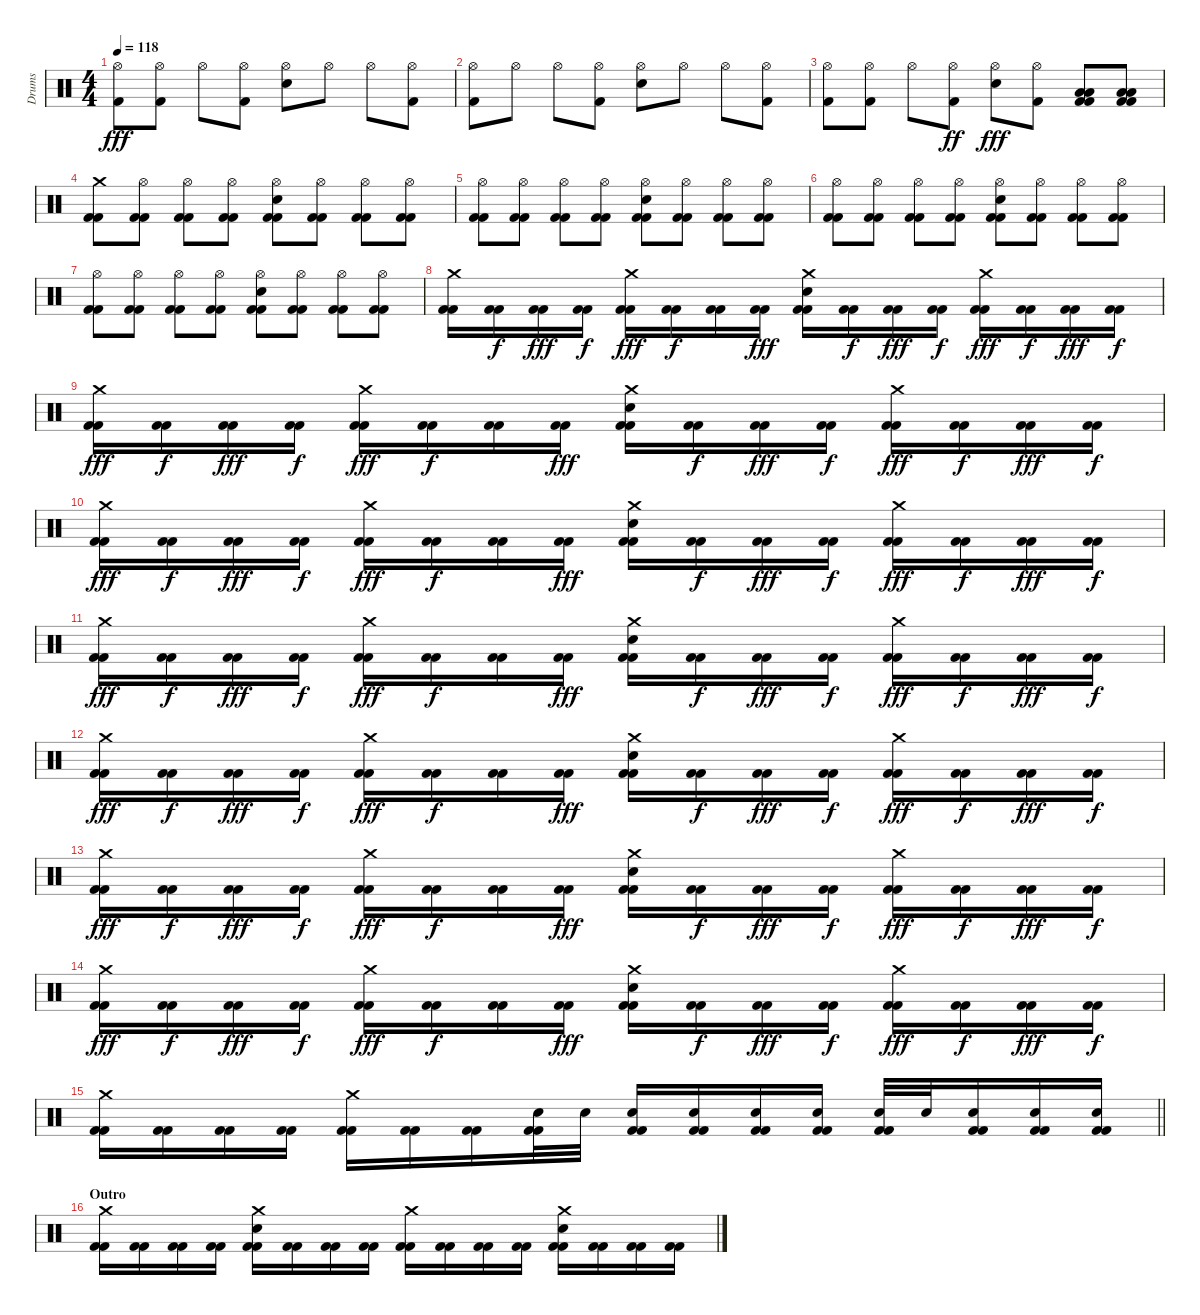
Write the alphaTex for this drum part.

\track ("Drums" "Drums") {instrument percussion}
\staff {score}
\articulation defaults
\ts (4 4)
\tempo 118
\clef neutral
\ks c
("Hi-Hat (open)" "Kick (hit) 2").8{dy fff} ("Hi-Hat (open)" "Kick (hit) 2").8 "Hi-Hat (open)".8 ("Hi-Hat (open)" "Kick (hit) 2").8 ("Hi-Hat (open)" "Electric Snare (hit)").8 "Hi-Hat (open)".8 "Hi-Hat (open)".8 ("Hi-Hat (open)" "Kick (hit) 2").8 |
("Hi-Hat (open)" "Kick (hit) 2").8 "Hi-Hat (open)".8 "Hi-Hat (open)".8 ("Hi-Hat (open)" "Kick (hit) 2").8 ("Hi-Hat (open)" "Electric Snare (hit)").8 "Hi-Hat (open)".8 "Hi-Hat (open)".8 ("Hi-Hat (open)" "Kick (hit) 2").8 |
("Hi-Hat (open)" "Kick (hit) 2").8 ("Hi-Hat (open)" "Kick (hit) 2").8 "Hi-Hat (open)".8 ("Hi-Hat (open)" "Kick (hit) 2").8{dy ff} ("Hi-Hat (open)" "Electric Snare (hit)").8{dy fff} ("Hi-Hat (open)" "Kick (hit) 2").8 ("Low Floor Tom (hit)" "Low Tom (hit)" "Kick (hit) 2" "Kick (hit) 2").8 ("Low Floor Tom (hit)" "Low Tom (hit)" "Kick (hit) 2" "Kick (hit) 2").8 |
("Crash medium (hit)" "Kick (hit) 2" "Kick (hit) 2").8 ("Hi-Hat (open)" "Kick (hit) 2" "Kick (hit) 2").8 ("Hi-Hat (open)" "Kick (hit) 2" "Kick (hit) 2").8 ("Hi-Hat (open)" "Kick (hit) 2" "Kick (hit) 2").8 ("Hi-Hat (open)" "Electric Snare (hit)" "Kick (hit) 2" "Kick (hit) 2").8 ("Hi-Hat (open)" "Kick (hit) 2" "Kick (hit) 2").8 ("Hi-Hat (open)" "Kick (hit) 2" "Kick (hit) 2").8 ("Hi-Hat (open)" "Kick (hit) 2" "Kick (hit) 2").8 |
("Hi-Hat (open)" "Kick (hit) 2" "Kick (hit) 2").8 ("Hi-Hat (open)" "Kick (hit) 2" "Kick (hit) 2").8 ("Hi-Hat (open)" "Kick (hit) 2" "Kick (hit) 2").8 ("Hi-Hat (open)" "Kick (hit) 2" "Kick (hit) 2").8 ("Hi-Hat (open)" "Electric Snare (hit)" "Kick (hit) 2" "Kick (hit) 2").8 ("Hi-Hat (open)" "Kick (hit) 2" "Kick (hit) 2").8 ("Hi-Hat (open)" "Kick (hit) 2" "Kick (hit) 2").8 ("Hi-Hat (open)" "Kick (hit) 2" "Kick (hit) 2").8 |
("Hi-Hat (open)" "Kick (hit) 2" "Kick (hit) 2").8 ("Hi-Hat (open)" "Kick (hit) 2" "Kick (hit) 2").8 ("Hi-Hat (open)" "Kick (hit) 2" "Kick (hit) 2").8 ("Hi-Hat (open)" "Kick (hit) 2" "Kick (hit) 2").8 ("Hi-Hat (open)" "Electric Snare (hit)" "Kick (hit) 2" "Kick (hit) 2").8 ("Hi-Hat (open)" "Kick (hit) 2" "Kick (hit) 2").8 ("Hi-Hat (open)" "Kick (hit) 2" "Kick (hit) 2").8 ("Hi-Hat (open)" "Kick (hit) 2" "Kick (hit) 2").8 |
("Hi-Hat (open)" "Kick (hit) 2" "Kick (hit) 2").8 ("Hi-Hat (open)" "Kick (hit) 2" "Kick (hit) 2").8 ("Hi-Hat (open)" "Kick (hit) 2" "Kick (hit) 2").8 ("Hi-Hat (open)" "Kick (hit) 2" "Kick (hit) 2").8 ("Hi-Hat (open)" "Electric Snare (hit)" "Kick (hit) 2" "Kick (hit) 2").8 ("Hi-Hat (open)" "Kick (hit) 2" "Kick (hit) 2").8 ("Hi-Hat (open)" "Kick (hit) 2" "Kick (hit) 2").8 ("Hi-Hat (open)" "Kick (hit) 2" "Kick (hit) 2").8 |
("Crash medium (hit)" "Kick (hit) 2" "Kick (hit) 2").16 ("Kick (hit) 2" "Kick (hit) 2").16{dy f} ("Kick (hit) 2" "Kick (hit) 2").16{dy fff} ("Kick (hit) 2" "Kick (hit) 2").16{dy f} ("Crash medium (hit)" "Kick (hit) 2" "Kick (hit) 2").16{dy fff} ("Kick (hit) 2" "Kick (hit) 2").16{dy f} ("Kick (hit) 2" "Kick (hit) 2").16 ("Kick (hit) 2" "Kick (hit) 2").16{dy fff} ("Crash medium (hit)" "Electric Snare (hit)" "Kick (hit) 2" "Kick (hit) 2").16 ("Kick (hit) 2" "Kick (hit) 2").16{dy f} ("Kick (hit) 2" "Kick (hit) 2").16{dy fff} ("Kick (hit) 2" "Kick (hit) 2").16{dy f} ("Crash medium (hit)" "Kick (hit) 2" "Kick (hit) 2").16{dy fff} ("Kick (hit) 2" "Kick (hit) 2").16{dy f} ("Kick (hit) 2" "Kick (hit) 2").16{dy fff} ("Kick (hit) 2" "Kick (hit) 2").16{dy f} |
("Crash medium (hit)" "Kick (hit) 2" "Kick (hit) 2").16{dy fff} ("Kick (hit) 2" "Kick (hit) 2").16{dy f} ("Kick (hit) 2" "Kick (hit) 2").16{dy fff} ("Kick (hit) 2" "Kick (hit) 2").16{dy f} ("Crash medium (hit)" "Kick (hit) 2" "Kick (hit) 2").16{dy fff} ("Kick (hit) 2" "Kick (hit) 2").16{dy f} ("Kick (hit) 2" "Kick (hit) 2").16 ("Kick (hit) 2" "Kick (hit) 2").16{dy fff} ("Crash medium (hit)" "Electric Snare (hit)" "Kick (hit) 2" "Kick (hit) 2").16 ("Kick (hit) 2" "Kick (hit) 2").16{dy f} ("Kick (hit) 2" "Kick (hit) 2").16{dy fff} ("Kick (hit) 2" "Kick (hit) 2").16{dy f} ("Crash medium (hit)" "Kick (hit) 2" "Kick (hit) 2").16{dy fff} ("Kick (hit) 2" "Kick (hit) 2").16{dy f} ("Kick (hit) 2" "Kick (hit) 2").16{dy fff} ("Kick (hit) 2" "Kick (hit) 2").16{dy f} |
("Crash medium (hit)" "Kick (hit) 2" "Kick (hit) 2").16{dy fff} ("Kick (hit) 2" "Kick (hit) 2").16{dy f} ("Kick (hit) 2" "Kick (hit) 2").16{dy fff} ("Kick (hit) 2" "Kick (hit) 2").16{dy f} ("Crash medium (hit)" "Kick (hit) 2" "Kick (hit) 2").16{dy fff} ("Kick (hit) 2" "Kick (hit) 2").16{dy f} ("Kick (hit) 2" "Kick (hit) 2").16 ("Kick (hit) 2" "Kick (hit) 2").16{dy fff} ("Crash medium (hit)" "Electric Snare (hit)" "Kick (hit) 2" "Kick (hit) 2").16 ("Kick (hit) 2" "Kick (hit) 2").16{dy f} ("Kick (hit) 2" "Kick (hit) 2").16{dy fff} ("Kick (hit) 2" "Kick (hit) 2").16{dy f} ("Crash medium (hit)" "Kick (hit) 2" "Kick (hit) 2").16{dy fff} ("Kick (hit) 2" "Kick (hit) 2").16{dy f} ("Kick (hit) 2" "Kick (hit) 2").16{dy fff} ("Kick (hit) 2" "Kick (hit) 2").16{dy f} |
("Crash medium (hit)" "Kick (hit) 2" "Kick (hit) 2").16{dy fff} ("Kick (hit) 2" "Kick (hit) 2").16{dy f} ("Kick (hit) 2" "Kick (hit) 2").16{dy fff} ("Kick (hit) 2" "Kick (hit) 2").16{dy f} ("Crash medium (hit)" "Kick (hit) 2" "Kick (hit) 2").16{dy fff} ("Kick (hit) 2" "Kick (hit) 2").16{dy f} ("Kick (hit) 2" "Kick (hit) 2").16 ("Kick (hit) 2" "Kick (hit) 2").16{dy fff} ("Crash medium (hit)" "Electric Snare (hit)" "Kick (hit) 2" "Kick (hit) 2").16 ("Kick (hit) 2" "Kick (hit) 2").16{dy f} ("Kick (hit) 2" "Kick (hit) 2").16{dy fff} ("Kick (hit) 2" "Kick (hit) 2").16{dy f} ("Crash medium (hit)" "Kick (hit) 2" "Kick (hit) 2").16{dy fff} ("Kick (hit) 2" "Kick (hit) 2").16{dy f} ("Kick (hit) 2" "Kick (hit) 2").16{dy fff} ("Kick (hit) 2" "Kick (hit) 2").16{dy f} |
("Crash medium (hit)" "Kick (hit) 2" "Kick (hit) 2").16{dy fff} ("Kick (hit) 2" "Kick (hit) 2").16{dy f} ("Kick (hit) 2" "Kick (hit) 2").16{dy fff} ("Kick (hit) 2" "Kick (hit) 2").16{dy f} ("Crash medium (hit)" "Kick (hit) 2" "Kick (hit) 2").16{dy fff} ("Kick (hit) 2" "Kick (hit) 2").16{dy f} ("Kick (hit) 2" "Kick (hit) 2").16 ("Kick (hit) 2" "Kick (hit) 2").16{dy fff} ("Crash medium (hit)" "Electric Snare (hit)" "Kick (hit) 2" "Kick (hit) 2").16 ("Kick (hit) 2" "Kick (hit) 2").16{dy f} ("Kick (hit) 2" "Kick (hit) 2").16{dy fff} ("Kick (hit) 2" "Kick (hit) 2").16{dy f} ("Crash medium (hit)" "Kick (hit) 2" "Kick (hit) 2").16{dy fff} ("Kick (hit) 2" "Kick (hit) 2").16{dy f} ("Kick (hit) 2" "Kick (hit) 2").16{dy fff} ("Kick (hit) 2" "Kick (hit) 2").16{dy f} |
("Crash medium (hit)" "Kick (hit) 2" "Kick (hit) 2").16{dy fff} ("Kick (hit) 2" "Kick (hit) 2").16{dy f} ("Kick (hit) 2" "Kick (hit) 2").16{dy fff} ("Kick (hit) 2" "Kick (hit) 2").16{dy f} ("Crash medium (hit)" "Kick (hit) 2" "Kick (hit) 2").16{dy fff} ("Kick (hit) 2" "Kick (hit) 2").16{dy f} ("Kick (hit) 2" "Kick (hit) 2").16 ("Kick (hit) 2" "Kick (hit) 2").16{dy fff} ("Crash medium (hit)" "Electric Snare (hit)" "Kick (hit) 2" "Kick (hit) 2").16 ("Kick (hit) 2" "Kick (hit) 2").16{dy f} ("Kick (hit) 2" "Kick (hit) 2").16{dy fff} ("Kick (hit) 2" "Kick (hit) 2").16{dy f} ("Crash medium (hit)" "Kick (hit) 2" "Kick (hit) 2").16{dy fff} ("Kick (hit) 2" "Kick (hit) 2").16{dy f} ("Kick (hit) 2" "Kick (hit) 2").16{dy fff} ("Kick (hit) 2" "Kick (hit) 2").16{dy f} |
("Crash medium (hit)" "Kick (hit) 2" "Kick (hit) 2").16{dy fff} ("Kick (hit) 2" "Kick (hit) 2").16{dy f} ("Kick (hit) 2" "Kick (hit) 2").16{dy fff} ("Kick (hit) 2" "Kick (hit) 2").16{dy f} ("Crash medium (hit)" "Kick (hit) 2" "Kick (hit) 2").16{dy fff} ("Kick (hit) 2" "Kick (hit) 2").16{dy f} ("Kick (hit) 2" "Kick (hit) 2").16 ("Kick (hit) 2" "Kick (hit) 2").16{dy fff} ("Crash medium (hit)" "Electric Snare (hit)" "Kick (hit) 2" "Kick (hit) 2").16 ("Kick (hit) 2" "Kick (hit) 2").16{dy f} ("Kick (hit) 2" "Kick (hit) 2").16{dy fff} ("Kick (hit) 2" "Kick (hit) 2").16{dy f} ("Crash medium (hit)" "Kick (hit) 2" "Kick (hit) 2").16{dy fff} ("Kick (hit) 2" "Kick (hit) 2").16{dy f} ("Kick (hit) 2" "Kick (hit) 2").16{dy fff} ("Kick (hit) 2" "Kick (hit) 2").16{dy f} |
\barLineRight lightlight
("Crash medium (hit)" "Kick (hit) 2" "Kick (hit) 2").16 ("Kick (hit) 2" "Kick (hit) 2").16 ("Kick (hit) 2" "Kick (hit) 2").16 ("Kick (hit) 2" "Kick (hit) 2").16 ("Crash medium (hit)" "Kick (hit) 2" "Kick (hit) 2").16 ("Kick (hit) 2" "Kick (hit) 2").16 ("Kick (hit) 2" "Kick (hit) 2").16 ("Electric Snare (hit)" "Kick (hit) 2" "Kick (hit) 2").32 "Electric Snare (hit)".32 ("Electric Snare (hit)" "Kick (hit) 2" "Kick (hit) 2").16 ("Electric Snare (hit)" "Kick (hit) 2" "Kick (hit) 2").16 ("Electric Snare (hit)" "Kick (hit) 2" "Kick (hit) 2").16 ("Electric Snare (hit)" "Kick (hit) 2" "Kick (hit) 2").16 ("Electric Snare (hit)" "Kick (hit) 2" "Kick (hit) 2").32 "Electric Snare (hit)".32 ("Electric Snare (hit)" "Kick (hit) 2" "Kick (hit) 2").16 ("Electric Snare (hit)" "Kick (hit) 2" "Kick (hit) 2").16 ("Electric Snare (hit)" "Kick (hit) 2" "Kick (hit) 2").16 |
\section ("" "Outro")
("Crash medium (hit)" "Kick (hit) 2" "Kick (hit) 2").16 ("Kick (hit) 2" "Kick (hit) 2").16 ("Kick (hit) 2" "Kick (hit) 2").16 ("Kick (hit) 2" "Kick (hit) 2").16 ("Crash medium (hit)" "Electric Snare (hit)" "Kick (hit) 2" "Kick (hit) 2").16 ("Kick (hit) 2" "Kick (hit) 2").16 ("Kick (hit) 2" "Kick (hit) 2").16 ("Kick (hit) 2" "Kick (hit) 2").16 ("Crash medium (hit)" "Kick (hit) 2" "Kick (hit) 2").16 ("Kick (hit) 2" "Kick (hit) 2").16 ("Kick (hit) 2" "Kick (hit) 2").16 ("Kick (hit) 2" "Kick (hit) 2").16 ("Crash medium (hit)" "Electric Snare (hit)" "Kick (hit) 2" "Kick (hit) 2").16 ("Kick (hit) 2" "Kick (hit) 2").16 ("Kick (hit) 2" "Kick (hit) 2").16 ("Kick (hit) 2" "Kick (hit) 2").16
